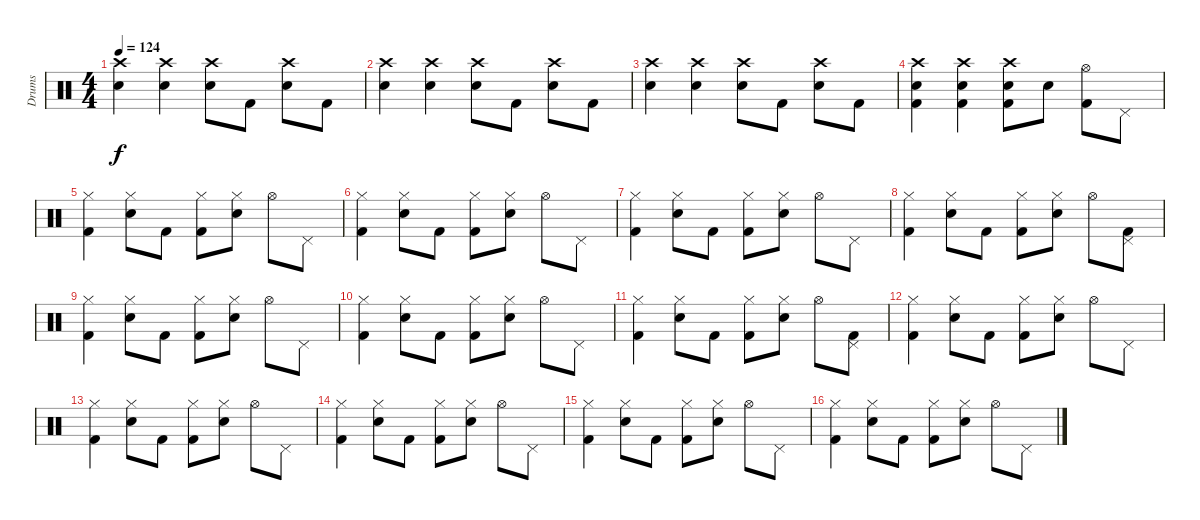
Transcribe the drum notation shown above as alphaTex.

\track ("Drums" "Drums") {instrument percussion}
\staff {score}
\articulation defaults
\ts (4 4)
\tempo 124
\clef neutral
\ks c
("Crash high (hit)" "Electric Snare (hit)").4{dy f} ("Crash high (hit)" "Electric Snare (hit)").4 ("Crash high (hit)" "Electric Snare (hit)").8 "Kick (hit) 2".8 ("Crash high (hit)" "Electric Snare (hit)").8 "Kick (hit) 2".8 |
("Crash high (hit)" "Electric Snare (hit)").4 ("Crash high (hit)" "Electric Snare (hit)").4 ("Crash high (hit)" "Electric Snare (hit)").8 "Kick (hit) 2".8 ("Crash high (hit)" "Electric Snare (hit)").8 "Kick (hit) 2".8 |
("Crash high (hit)" "Electric Snare (hit)").4 ("Crash high (hit)" "Electric Snare (hit)").4 ("Crash high (hit)" "Electric Snare (hit)").8 "Kick (hit) 2".8 ("Crash high (hit)" "Electric Snare (hit)").8 "Kick (hit) 2".8 |
("Crash high (hit)" "Electric Snare (hit)" "Kick (hit) 2").4 ("Crash high (hit)" "Electric Snare (hit)" "Kick (hit) 2").4 ("Crash high (hit)" "Electric Snare (hit)" "Kick (hit) 2").8 "Electric Snare (hit)".8 ("Hi-Hat (open)" "Kick (hit) 2").8 "Pedal Hi-Hat (hit)".8 |
("Hi-Hat (closed)" "Kick (hit) 2").4 ("Hi-Hat (closed)" "Electric Snare (hit)").8 "Kick (hit) 2".8 ("Hi-Hat (closed)" "Kick (hit) 2").8 ("Hi-Hat (closed)" "Electric Snare (hit)").8 "Hi-Hat (open)".8 "Pedal Hi-Hat (hit)".8 |
("Hi-Hat (closed)" "Kick (hit) 2").4 ("Hi-Hat (closed)" "Electric Snare (hit)").8 "Kick (hit) 2".8 ("Hi-Hat (closed)" "Kick (hit) 2").8 ("Hi-Hat (closed)" "Electric Snare (hit)").8 "Hi-Hat (open)".8 "Pedal Hi-Hat (hit)".8 |
("Hi-Hat (closed)" "Kick (hit) 2").4 ("Hi-Hat (closed)" "Electric Snare (hit)").8 "Kick (hit) 2".8 ("Hi-Hat (closed)" "Kick (hit) 2").8 ("Hi-Hat (closed)" "Electric Snare (hit)").8 "Hi-Hat (open)".8 "Pedal Hi-Hat (hit)".8 |
("Hi-Hat (closed)" "Kick (hit) 2").4 ("Hi-Hat (closed)" "Electric Snare (hit)").8 "Kick (hit) 2".8 ("Hi-Hat (closed)" "Kick (hit) 2").8 ("Hi-Hat (closed)" "Electric Snare (hit)").8 "Hi-Hat (open)".8 ("Pedal Hi-Hat (hit)" "Kick (hit) 2").8 |
("Hi-Hat (closed)" "Kick (hit) 2").4 ("Hi-Hat (closed)" "Electric Snare (hit)").8 "Kick (hit) 2".8 ("Hi-Hat (closed)" "Kick (hit) 2").8 ("Hi-Hat (closed)" "Electric Snare (hit)").8 "Hi-Hat (open)".8 "Pedal Hi-Hat (hit)".8 |
("Hi-Hat (closed)" "Kick (hit) 2").4 ("Hi-Hat (closed)" "Electric Snare (hit)").8 "Kick (hit) 2".8 ("Hi-Hat (closed)" "Kick (hit) 2").8 ("Hi-Hat (closed)" "Electric Snare (hit)").8 "Hi-Hat (open)".8 "Pedal Hi-Hat (hit)".8 |
("Hi-Hat (closed)" "Kick (hit) 2").4 ("Hi-Hat (closed)" "Electric Snare (hit)").8 "Kick (hit) 2".8 ("Hi-Hat (closed)" "Kick (hit) 2").8 ("Hi-Hat (closed)" "Electric Snare (hit)").8 "Hi-Hat (open)".8 ("Pedal Hi-Hat (hit)" "Kick (hit) 2").8 |
("Hi-Hat (closed)" "Kick (hit) 2").4 ("Hi-Hat (closed)" "Electric Snare (hit)").8 "Kick (hit) 2".8 ("Hi-Hat (closed)" "Kick (hit) 2").8 ("Hi-Hat (closed)" "Electric Snare (hit)").8 "Hi-Hat (open)".8 "Pedal Hi-Hat (hit)".8 |
("Hi-Hat (closed)" "Kick (hit) 2").4 ("Hi-Hat (closed)" "Electric Snare (hit)").8 "Kick (hit) 2".8 ("Hi-Hat (closed)" "Kick (hit) 2").8 ("Hi-Hat (closed)" "Electric Snare (hit)").8 "Hi-Hat (open)".8 "Pedal Hi-Hat (hit)".8 |
("Hi-Hat (closed)" "Kick (hit) 2").4 ("Hi-Hat (closed)" "Electric Snare (hit)").8 "Kick (hit) 2".8 ("Hi-Hat (closed)" "Kick (hit) 2").8 ("Hi-Hat (closed)" "Electric Snare (hit)").8 "Hi-Hat (open)".8 "Pedal Hi-Hat (hit)".8 |
("Hi-Hat (closed)" "Kick (hit) 2").4 ("Hi-Hat (closed)" "Electric Snare (hit)").8 "Kick (hit) 2".8 ("Hi-Hat (closed)" "Kick (hit) 2").8 ("Hi-Hat (closed)" "Electric Snare (hit)").8 "Hi-Hat (open)".8 "Pedal Hi-Hat (hit)".8 |
("Hi-Hat (closed)" "Kick (hit) 2").4 ("Hi-Hat (closed)" "Electric Snare (hit)").8 "Kick (hit) 2".8 ("Hi-Hat (closed)" "Kick (hit) 2").8 ("Hi-Hat (closed)" "Electric Snare (hit)").8 "Hi-Hat (open)".8 "Pedal Hi-Hat (hit)".8
